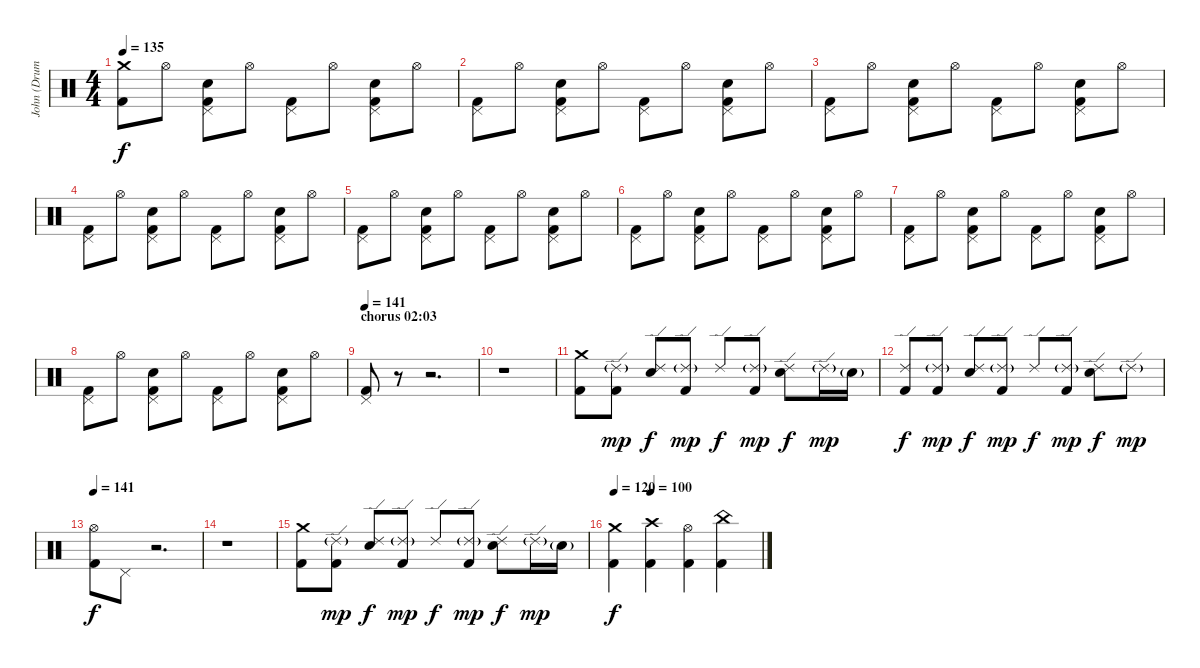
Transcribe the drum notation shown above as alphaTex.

\track ("John (Drums)" "John (Drum") {instrument percussion}
\staff {score}
\articulation defaults
\ts (4 4)
\tempo 135
\clef neutral
\ks c
("Crash medium (hit)" "Kick (hit) 2").8{dy f} "Hi-Hat (open)".8 ("Pedal Hi-Hat (hit)" "Snare (hit) 2" "Kick (hit) 2").8 "Hi-Hat (open)".8 ("Pedal Hi-Hat (hit)" "Kick (hit) 2").8 "Hi-Hat (open)".8 ("Pedal Hi-Hat (hit)" "Snare (hit) 2" "Kick (hit) 2").8 "Hi-Hat (open)".8 |
("Pedal Hi-Hat (hit)" "Kick (hit) 2").8 "Hi-Hat (open)".8 ("Pedal Hi-Hat (hit)" "Snare (hit) 2" "Kick (hit) 2").8 "Hi-Hat (open)".8 ("Pedal Hi-Hat (hit)" "Kick (hit) 2").8 "Hi-Hat (open)".8 ("Pedal Hi-Hat (hit)" "Snare (hit) 2" "Kick (hit) 2").8 "Hi-Hat (open)".8 |
("Pedal Hi-Hat (hit)" "Kick (hit) 2").8 "Hi-Hat (open)".8 ("Pedal Hi-Hat (hit)" "Snare (hit) 2" "Kick (hit) 2").8 "Hi-Hat (open)".8 ("Pedal Hi-Hat (hit)" "Kick (hit) 2").8 "Hi-Hat (open)".8 ("Pedal Hi-Hat (hit)" "Snare (hit) 2" "Kick (hit) 2").8 "Hi-Hat (open)".8 |
("Pedal Hi-Hat (hit)" "Kick (hit) 2").8 "Hi-Hat (open)".8 ("Pedal Hi-Hat (hit)" "Snare (hit) 2" "Kick (hit) 2").8 "Hi-Hat (open)".8 ("Pedal Hi-Hat (hit)" "Kick (hit) 2").8 "Hi-Hat (open)".8 ("Pedal Hi-Hat (hit)" "Snare (hit) 2" "Kick (hit) 2").8 "Hi-Hat (open)".8 |
("Pedal Hi-Hat (hit)" "Kick (hit) 2").8{volume 7} "Hi-Hat (open)".8 ("Pedal Hi-Hat (hit)" "Snare (hit) 2" "Kick (hit) 2").8 "Hi-Hat (open)".8 ("Pedal Hi-Hat (hit)" "Kick (hit) 2").8 "Hi-Hat (open)".8 ("Pedal Hi-Hat (hit)" "Snare (hit) 2" "Kick (hit) 2").8 "Hi-Hat (open)".8 |
("Pedal Hi-Hat (hit)" "Kick (hit) 2").8 "Hi-Hat (open)".8 ("Pedal Hi-Hat (hit)" "Snare (hit) 2" "Kick (hit) 2").8 "Hi-Hat (open)".8 ("Pedal Hi-Hat (hit)" "Kick (hit) 2").8 "Hi-Hat (open)".8 ("Pedal Hi-Hat (hit)" "Snare (hit) 2" "Kick (hit) 2").8 "Hi-Hat (open)".8 |
("Pedal Hi-Hat (hit)" "Kick (hit) 2").8 "Hi-Hat (open)".8 ("Pedal Hi-Hat (hit)" "Snare (hit) 2" "Kick (hit) 2").8 "Hi-Hat (open)".8 ("Pedal Hi-Hat (hit)" "Kick (hit) 2").8 "Hi-Hat (open)".8 ("Pedal Hi-Hat (hit)" "Snare (hit) 2" "Kick (hit) 2").8 "Hi-Hat (open)".8 |
("Pedal Hi-Hat (hit)" "Kick (hit) 2").8 "Hi-Hat (open)".8 ("Pedal Hi-Hat (hit)" "Snare (hit) 2" "Kick (hit) 2").8 "Hi-Hat (open)".8 ("Pedal Hi-Hat (hit)" "Kick (hit) 2").8 "Hi-Hat (open)".8 ("Pedal Hi-Hat (hit)" "Snare (hit) 2" "Kick (hit) 2").8 "Hi-Hat (open)".8 |
\section ("" "chorus 02:03")
\tempo 141
("Pedal Hi-Hat (hit)" "Kick (hit) 2").8 r.8 r.2{d} |
r.1 |
("Crash medium (hit)" "Kick (hit) 2").8{volume 13} ("Ride (edge) 2"{g} "Kick (hit) 2").8{dy mp} ("Ride (edge) 2" "Snare (hit) 2").8{dy f} ("Ride (edge) 2"{g} "Kick (hit) 2").8{dy mp} "Ride (edge) 2".8{dy f} ("Ride (edge) 2"{g} "Kick (hit) 2").8{dy mp} ("Ride (edge) 2" "Snare (hit) 2").8{dy f} "Ride (edge) 2"{g}.16{dy mp} "Snare (hit) 2"{g}.16 |
("Ride (edge) 2" "Kick (hit) 2").8{dy f} ("Ride (edge) 2"{g} "Kick (hit) 2").8{dy mp} ("Ride (edge) 2" "Snare (hit) 2").8{dy f} ("Ride (edge) 2"{g} "Kick (hit) 2").8{dy mp} "Ride (edge) 2".8{dy f} ("Ride (edge) 2"{g} "Kick (hit) 2").8{dy mp} ("Ride (edge) 2" "Snare (hit) 2").8{dy f} "Ride (edge) 2"{g}.8{dy mp} |
\tempo 141
("Hi-Hat (open)" "Kick (hit) 2").8{dy f} "Pedal Hi-Hat (hit)".8 r.2{d} |
r.1 |
("Crash medium (hit)" "Kick (hit) 2").8 ("Ride (edge) 2"{g} "Kick (hit) 2").8{dy mp} ("Ride (edge) 2" "Snare (hit) 2").8{dy f} ("Ride (edge) 2"{g} "Kick (hit) 2").8{dy mp} "Ride (edge) 2".8{dy f} ("Ride (edge) 2"{g} "Kick (hit) 2").8{dy mp} ("Ride (edge) 2" "Snare (hit) 2").8{dy f} "Ride (edge) 2"{g}.16{dy mp} "Snare (hit) 2"{g}.16 |
\tempo 120
\tempo (100 0.25)
("Crash medium (hit)" "Kick (hit) 2").4{dy f} ("Crash high (hit)" "Kick (hit) 2").4 ("Hi-Hat (open)" "Kick (hit) 2").4 ("China (hit)" "Kick (hit) 2").4
